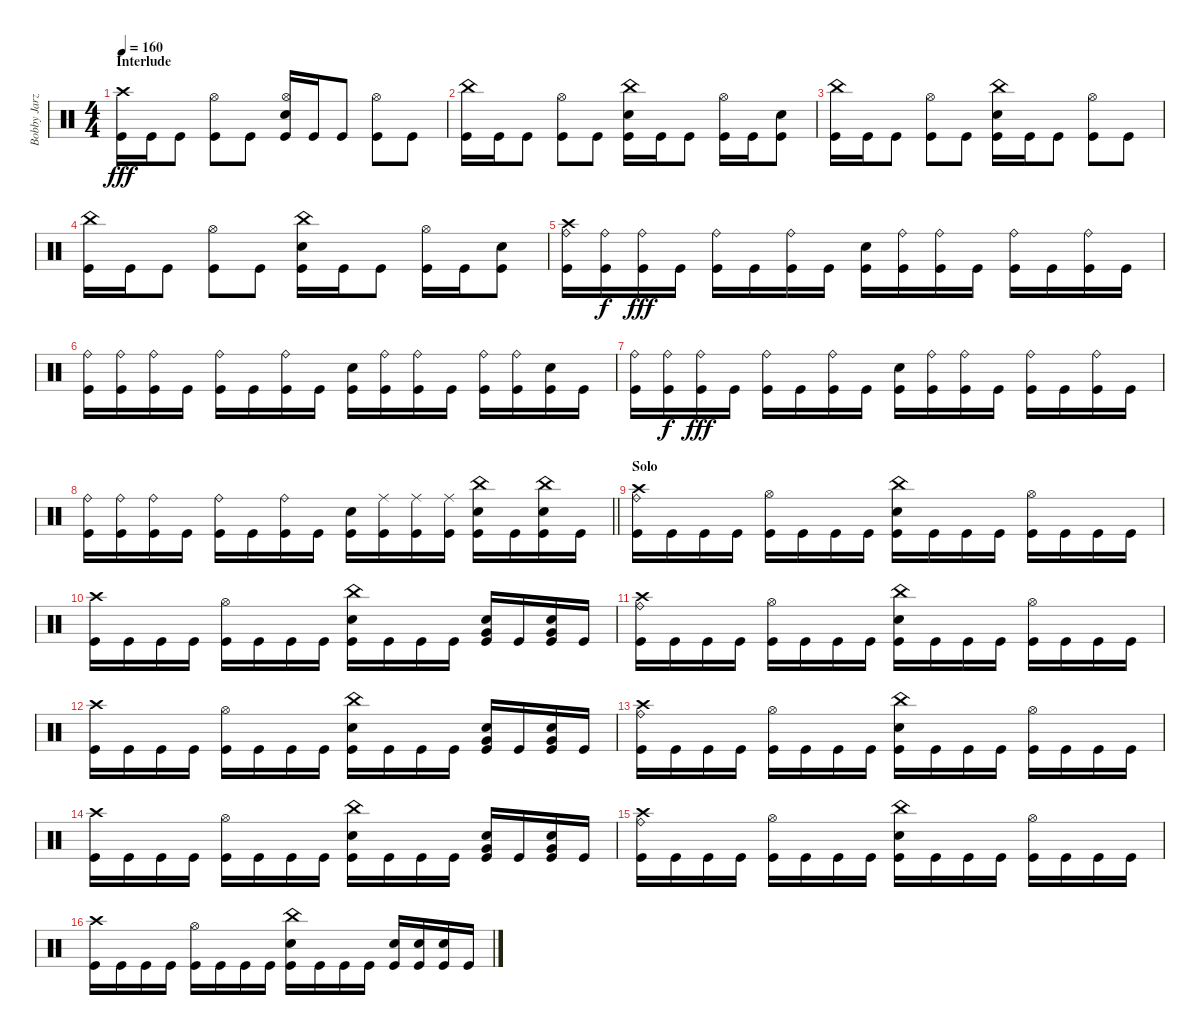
\track ("Bobby Jarzombek" "Bobby Jarz") {instrument percussion}
\staff {score}
\articulation defaults
\ts (4 4)
\section ("" "Interlude")
\tempo 160
\clef neutral
\ks c
("Crash high (hit)" "Kick (hit)").16{dy fff} "Kick (hit)".16 "Kick (hit)".8 ("Hi-Hat (open)" "Kick (hit)").8 "Kick (hit)".8 ("Hi-Hat (open)" "Electric Snare (hit)" "Kick (hit)").16 "Kick (hit)".16 "Kick (hit)".8 ("Hi-Hat (open)" "Kick (hit)").8 "Kick (hit)".8 |
("China (hit)" "Kick (hit)").16 "Kick (hit)".16 "Kick (hit)".8 ("Hi-Hat (open)" "Kick (hit)").8 "Kick (hit)".8 ("China (hit)" "Electric Snare (hit)" "Kick (hit)").16 "Kick (hit)".16 "Kick (hit)".8 ("Hi-Hat (open)" "Kick (hit)").16 "Kick (hit)".16 ("Electric Snare (hit)" "Kick (hit)").8 |
("China (hit)" "Kick (hit)").16 "Kick (hit)".16 "Kick (hit)".8 ("Hi-Hat (open)" "Kick (hit)").8 "Kick (hit)".8 ("China (hit)" "Electric Snare (hit)" "Kick (hit)").16 "Kick (hit)".16 "Kick (hit)".8 ("Hi-Hat (open)" "Kick (hit)").8 "Kick (hit)".8 |
("China (hit)" "Kick (hit)").16 "Kick (hit)".16 "Kick (hit)".8 ("Hi-Hat (open)" "Kick (hit)").8 "Kick (hit)".8 ("China (hit)" "Electric Snare (hit)" "Kick (hit)").16 "Kick (hit)".16 "Kick (hit)".8 ("Hi-Hat (open)" "Kick (hit)").16 "Kick (hit)".16 ("Electric Snare (hit)" "Kick (hit)").8 |
("Crash high (hit)" "Ride (bell)" "Kick (hit)").16 ("Ride (bell)" "Kick (hit)").16{dy f} ("Ride (bell)" "Kick (hit)").16{dy fff} "Kick (hit)".16 ("Ride (bell)" "Kick (hit)").16 "Kick (hit)".16 ("Ride (bell)" "Kick (hit)").16 "Kick (hit)".16 ("Electric Snare (hit)" "Kick (hit)").16 ("Ride (bell)" "Kick (hit)").16 ("Ride (bell)" "Kick (hit)").16 "Kick (hit)".16 ("Ride (bell)" "Kick (hit)").16 "Kick (hit)".16 ("Ride (bell)" "Kick (hit)").16 "Kick (hit)".16 |
("Ride (bell)" "Kick (hit)").16 ("Ride (bell)" "Kick (hit)").16 ("Ride (bell)" "Kick (hit)").16 "Kick (hit)".16 ("Ride (bell)" "Kick (hit)").16 "Kick (hit)".16 ("Ride (bell)" "Kick (hit)").16 "Kick (hit)".16 ("Electric Snare (hit)" "Kick (hit)").16 ("Ride (bell)" "Kick (hit)").16 ("Ride (bell)" "Kick (hit)").16 "Kick (hit)".16 ("Ride (bell)" "Kick (hit)").16 ("Ride (bell)" "Kick (hit)").16 ("Electric Snare (hit)" "Kick (hit)").16 "Kick (hit)".16 |
("Ride (bell)" "Kick (hit)").16 ("Ride (bell)" "Kick (hit)").16{dy f} ("Ride (bell)" "Kick (hit)").16{dy fff} "Kick (hit)".16 ("Ride (bell)" "Kick (hit)").16 "Kick (hit)".16 ("Ride (bell)" "Kick (hit)").16 "Kick (hit)".16 ("Electric Snare (hit)" "Kick (hit)").16 ("Ride (bell)" "Kick (hit)").16 ("Ride (bell)" "Kick (hit)").16 "Kick (hit)".16 ("Ride (bell)" "Kick (hit)").16 "Kick (hit)".16 ("Ride (bell)" "Kick (hit)").16 "Kick (hit)".16 |
\barLineRight lightlight
("Ride (bell)" "Kick (hit)").16 ("Ride (bell)" "Kick (hit)").16 ("Ride (bell)" "Kick (hit)").16 "Kick (hit)".16 ("Ride (bell)" "Kick (hit)").16 "Kick (hit)".16 ("Ride (bell)" "Kick (hit)").16 "Kick (hit)".16 ("Electric Snare (hit)" "Kick (hit)").16 ("Ride (middle)" "Kick (hit)").16 ("Ride (middle)" "Kick (hit)").16 ("Ride (middle)" "Kick (hit)").16 ("China (hit)" "Electric Snare (hit)" "Kick (hit)").16 "Kick (hit)".16 ("China (hit)" "Electric Snare (hit)" "Kick (hit)").16 "Kick (hit)".16 |
\section ("" "Solo")
("Crash high (hit)" "Ride (bell)" "Kick (hit)").16 "Kick (hit)".16 "Kick (hit)".16 "Kick (hit)".16 ("Hi-Hat (open)" "Kick (hit)").16 "Kick (hit)".16 "Kick (hit)".16 "Kick (hit)".16 ("China (hit)" "Electric Snare (hit)" "Kick (hit)").16 "Kick (hit)".16 "Kick (hit)".16 "Kick (hit)".16 ("Hi-Hat (open)" "Kick (hit)").16 "Kick (hit)".16 "Kick (hit)".16 "Kick (hit)".16 |
("Crash high (hit)" "Kick (hit)").16 "Kick (hit)".16 "Kick (hit)".16 "Kick (hit)".16 ("Hi-Hat (open)" "Kick (hit)").16 "Kick (hit)".16 "Kick (hit)".16 "Kick (hit)".16 ("China (hit)" "Electric Snare (hit)" "Kick (hit)").16 "Kick (hit)".16 "Kick (hit)".16 "Kick (hit)".16 ("Very Low Tom (hit)" "Electric Snare (hit)" "Kick (hit)").16 "Kick (hit)".16 ("Very Low Tom (hit)" "Electric Snare (hit)" "Kick (hit)").16 "Kick (hit)".16 |
("Crash high (hit)" "Ride (bell)" "Kick (hit)").16 "Kick (hit)".16 "Kick (hit)".16 "Kick (hit)".16 ("Hi-Hat (open)" "Kick (hit)").16 "Kick (hit)".16 "Kick (hit)".16 "Kick (hit)".16 ("China (hit)" "Electric Snare (hit)" "Kick (hit)").16 "Kick (hit)".16 "Kick (hit)".16 "Kick (hit)".16 ("Hi-Hat (open)" "Kick (hit)").16 "Kick (hit)".16 "Kick (hit)".16 "Kick (hit)".16 |
("Crash high (hit)" "Kick (hit)").16 "Kick (hit)".16 "Kick (hit)".16 "Kick (hit)".16 ("Hi-Hat (open)" "Kick (hit)").16 "Kick (hit)".16 "Kick (hit)".16 "Kick (hit)".16 ("China (hit)" "Electric Snare (hit)" "Kick (hit)").16 "Kick (hit)".16 "Kick (hit)".16 "Kick (hit)".16 ("Very Low Tom (hit)" "Electric Snare (hit)" "Kick (hit)").16 "Kick (hit)".16 ("Very Low Tom (hit)" "Electric Snare (hit)" "Kick (hit)").16 "Kick (hit)".16 |
("Crash high (hit)" "Ride (bell)" "Kick (hit)").16 "Kick (hit)".16 "Kick (hit)".16 "Kick (hit)".16 ("Hi-Hat (open)" "Kick (hit)").16 "Kick (hit)".16 "Kick (hit)".16 "Kick (hit)".16 ("China (hit)" "Electric Snare (hit)" "Kick (hit)").16 "Kick (hit)".16 "Kick (hit)".16 "Kick (hit)".16 ("Hi-Hat (open)" "Kick (hit)").16 "Kick (hit)".16 "Kick (hit)".16 "Kick (hit)".16 |
("Crash high (hit)" "Kick (hit)").16 "Kick (hit)".16 "Kick (hit)".16 "Kick (hit)".16 ("Hi-Hat (open)" "Kick (hit)").16 "Kick (hit)".16 "Kick (hit)".16 "Kick (hit)".16 ("China (hit)" "Electric Snare (hit)" "Kick (hit)").16 "Kick (hit)".16 "Kick (hit)".16 "Kick (hit)".16 ("Very Low Tom (hit)" "Electric Snare (hit)" "Kick (hit)").16 "Kick (hit)".16 ("Very Low Tom (hit)" "Electric Snare (hit)" "Kick (hit)").16 "Kick (hit)".16 |
("Crash high (hit)" "Ride (bell)" "Kick (hit)").16 "Kick (hit)".16 "Kick (hit)".16 "Kick (hit)".16 ("Hi-Hat (open)" "Kick (hit)").16 "Kick (hit)".16 "Kick (hit)".16 "Kick (hit)".16 ("China (hit)" "Electric Snare (hit)" "Kick (hit)").16 "Kick (hit)".16 "Kick (hit)".16 "Kick (hit)".16 ("Hi-Hat (open)" "Kick (hit)").16 "Kick (hit)".16 "Kick (hit)".16 "Kick (hit)".16 |
("Crash high (hit)" "Kick (hit)").16 "Kick (hit)".16 "Kick (hit)".16 "Kick (hit)".16 ("Hi-Hat (open)" "Kick (hit)").16 "Kick (hit)".16 "Kick (hit)".16 "Kick (hit)".16 ("China (hit)" "Electric Snare (hit)" "Kick (hit)").16 "Kick (hit)".16 "Kick (hit)".16 "Kick (hit)".16 ("Electric Snare (hit)" "Kick (hit)").16 ("Electric Snare (hit)" "Kick (hit)").16 ("Electric Snare (hit)" "Kick (hit)").16 "Kick (hit)".16
